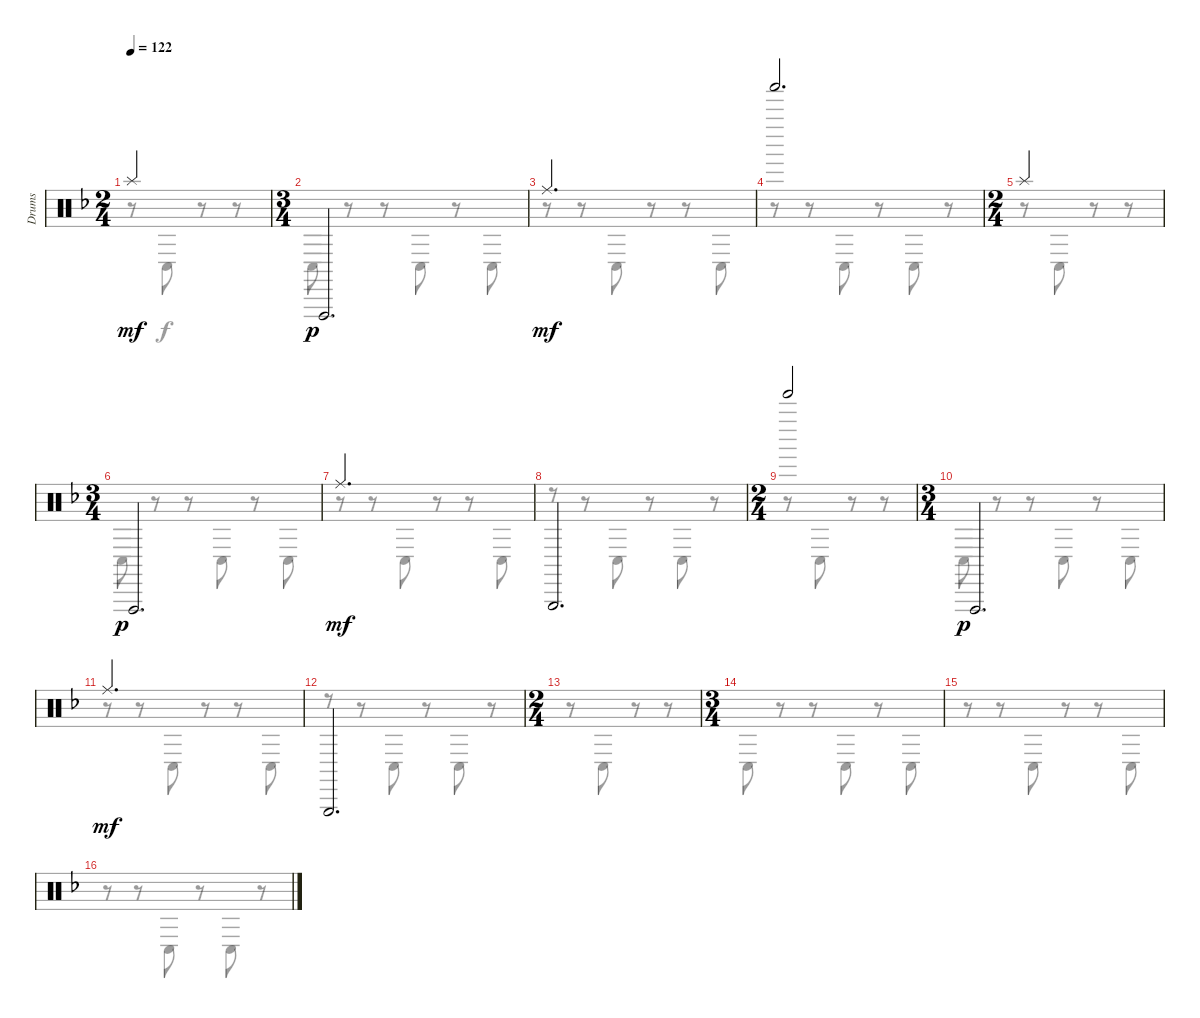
\track ("Drums" "Drums") {instrument percussion}
\staff {score}
\articulation defaults
\voice
\ts (2 4)
\tempo 122
\clef neutral
\ks dminor "Splash (hit)".2{dy mf}
|
\ts (3 4)
"Vibraslap (hit)".2{d dy p} |
"Ride (middle)".2{d dy mf} |
"Shaker (hit)".2{d} |
\ts (2 4)
"Splash (hit)".2 |
\ts (3 4)
"Vibraslap (hit)".2{d dy p} |
"Ride (middle)".2{d dy mf} |
"Triangle (hit)".2{d} |
\ts (2 4)
"Tinkle Bell (hit)".2 |
\ts (3 4)
"Vibraslap (hit)".2{d dy p} |
"Ride (middle)".2{d dy mf} |
"Triangle (hit)".2{d} |
\ts (2 4)
|
\ts (3 4)
|
|
\voice
\clef neutral
\ottava regular
\simile none
\ks dminor
r.8{dy f} "Conga low (hit)".8 r.8 r.8 |
"Conga low (hit)".8 r.8 r.8 "Conga low (hit)".8 r.8 "Conga low (hit)".8 |
r.8 r.8 "Conga low (hit)".8 r.8 r.8 "Conga low (hit)".8 |
r.8 r.8 "Conga low (hit)".8 r.8 "Conga low (hit)".8 r.8 |
r.8 "Conga low (hit)".8 r.8 r.8 |
"Conga low (hit)".8 r.8 r.8 "Conga low (hit)".8 r.8 "Conga low (hit)".8 |
r.8 r.8 "Conga low (hit)".8 r.8 r.8 "Conga low (hit)".8 |
r.8 r.8 "Conga low (hit)".8 r.8 "Conga low (hit)".8 r.8 |
r.8 "Conga low (hit)".8 r.8 r.8 |
"Conga low (hit)".8 r.8 r.8 "Conga low (hit)".8 r.8 "Conga low (hit)".8 |
r.8 r.8 "Conga low (hit)".8 r.8 r.8 "Conga low (hit)".8 |
r.8 r.8 "Conga low (hit)".8 r.8 "Conga low (hit)".8 r.8 |
r.8 "Conga low (hit)".8 r.8 r.8 |
"Conga low (hit)".8 r.8 r.8 "Conga low (hit)".8 r.8 "Conga low (hit)".8 |
r.8 r.8 "Conga low (hit)".8 r.8 r.8 "Conga low (hit)".8 |
r.8 r.8 "Conga low (hit)".8 r.8 "Conga low (hit)".8 r.8
